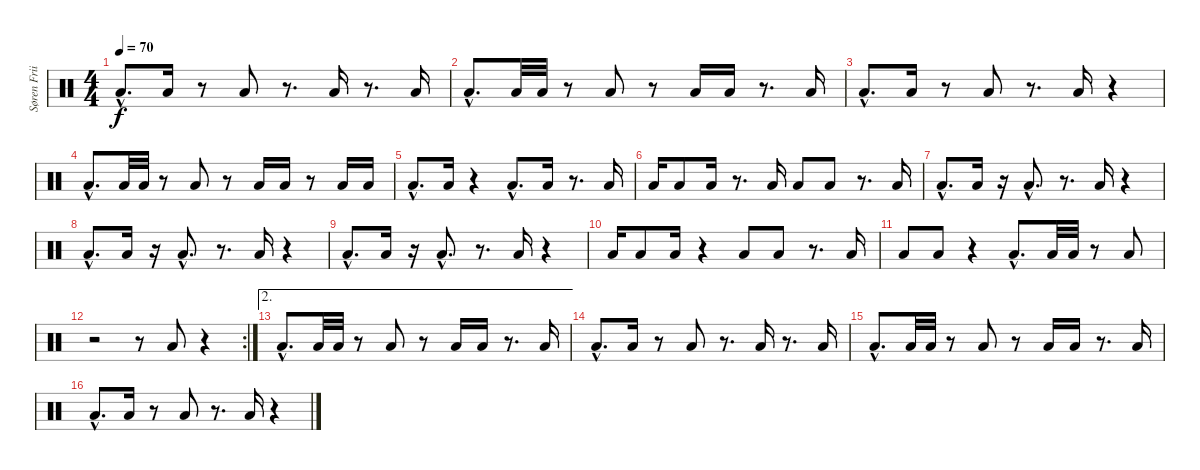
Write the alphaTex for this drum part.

\track ("Søren Friis (Floor Drum)" "Søren Frii") {instrument percussion}
\staff {score}
\articulation defaults
\ts (4 4)
\tempo 70
\clef neutral
\ks c "Low Floor Tom (hit)"{hac}.8{d dy f} "Low Floor Tom (hit)".16
r.8 "Low Floor Tom (hit)".8 r.8{d} "Low Floor Tom (hit)".16 r.8{d} "Low Floor Tom (hit)".16 |
"Low Floor Tom (hit)"{hac}.8{d} "Low Floor Tom (hit)".32 "Low Floor Tom (hit)".32 r.8 "Low Floor Tom (hit)".8 r.8 "Low Floor Tom (hit)".16 "Low Floor Tom (hit)".16 r.8{d} "Low Floor Tom (hit)".16 |
"Low Floor Tom (hit)"{hac}.8{d} "Low Floor Tom (hit)".16 r.8 "Low Floor Tom (hit)".8 r.8{d} "Low Floor Tom (hit)".16 r.4 |
"Low Floor Tom (hit)"{hac}.8{d} "Low Floor Tom (hit)".32 "Low Floor Tom (hit)".32 r.8 "Low Floor Tom (hit)".8 r.8 "Low Floor Tom (hit)".16 "Low Floor Tom (hit)".16 r.8 "Low Floor Tom (hit)".16 "Low Floor Tom (hit)".16 |
"Low Floor Tom (hit)"{hac}.8{d} "Low Floor Tom (hit)".16 r.4 "Low Floor Tom (hit)"{hac}.8{d} "Low Floor Tom (hit)".16 r.8{d} "Low Floor Tom (hit)".16 |
"Low Floor Tom (hit)".16 "Low Floor Tom (hit)".8 "Low Floor Tom (hit)".16 r.8{d} "Low Floor Tom (hit)".16 "Low Floor Tom (hit)".8 "Low Floor Tom (hit)".8 r.8{d} "Low Floor Tom (hit)".16 |
"Low Floor Tom (hit)"{hac}.8{d} "Low Floor Tom (hit)".16 r.16 "Low Floor Tom (hit)"{hac}.8{d} r.8{d} "Low Floor Tom (hit)".16 r.4 |
"Low Floor Tom (hit)"{hac}.8{d} "Low Floor Tom (hit)".16 r.16 "Low Floor Tom (hit)"{hac}.8{d} r.8{d} "Low Floor Tom (hit)".16 r.4 |
"Low Floor Tom (hit)"{hac}.8{d} "Low Floor Tom (hit)".16 r.16 "Low Floor Tom (hit)"{hac}.8{d} r.8{d} "Low Floor Tom (hit)".16 r.4 |
"Low Floor Tom (hit)".16 "Low Floor Tom (hit)".8 "Low Floor Tom (hit)".16 r.4 "Low Floor Tom (hit)".8 "Low Floor Tom (hit)".8 r.8{d} "Low Floor Tom (hit)".16 |
"Low Floor Tom (hit)".8 "Low Floor Tom (hit)".8 r.4 "Low Floor Tom (hit)"{hac}.8{d} "Low Floor Tom (hit)".32 "Low Floor Tom (hit)".32 r.8 "Low Floor Tom (hit)".8 |
\rc 2
r.2 r.8 "Low Floor Tom (hit)".8 r.4 |
\ae 2 "Low Floor Tom (hit)"{hac}.8{d} "Low Floor Tom (hit)".32 "Low Floor Tom (hit)".32
r.8 "Low Floor Tom (hit)".8 r.8 "Low Floor Tom (hit)".16 "Low Floor Tom (hit)".16 r.8{d} "Low Floor Tom (hit)".16 |
"Low Floor Tom (hit)"{hac}.8{d} "Low Floor Tom (hit)".16 r.8 "Low Floor Tom (hit)".8 r.8{d} "Low Floor Tom (hit)".16 r.8{d} "Low Floor Tom (hit)".16 |
"Low Floor Tom (hit)"{hac}.8{d} "Low Floor Tom (hit)".32 "Low Floor Tom (hit)".32 r.8 "Low Floor Tom (hit)".8 r.8 "Low Floor Tom (hit)".16 "Low Floor Tom (hit)".16 r.8{d} "Low Floor Tom (hit)".16 |
"Low Floor Tom (hit)"{hac}.8{d} "Low Floor Tom (hit)".16 r.8 "Low Floor Tom (hit)".8 r.8{d} "Low Floor Tom (hit)".16 r.4
